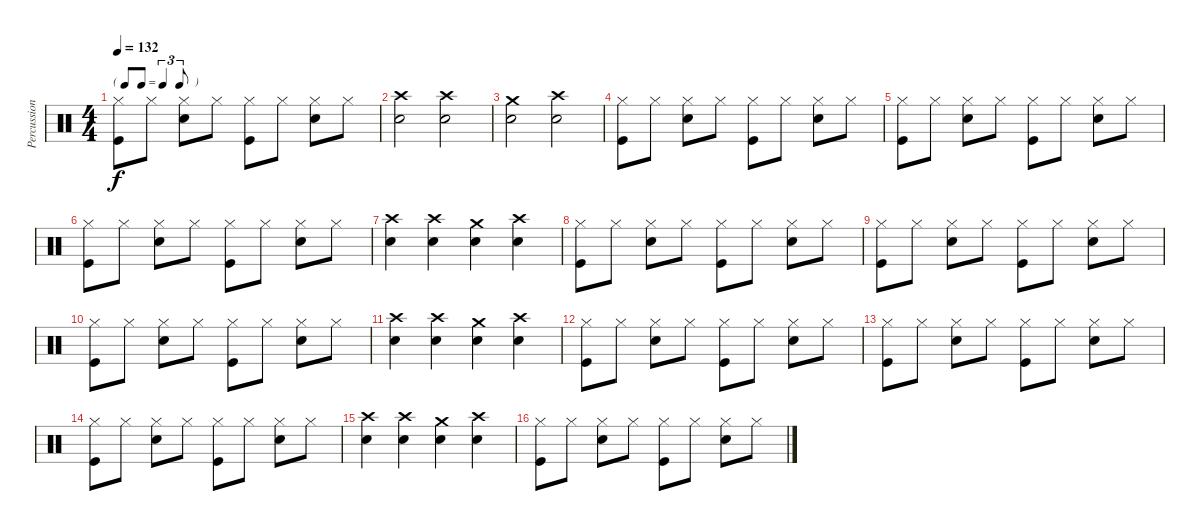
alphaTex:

\track ("Percussion" "Percussion") {instrument percussion}
\staff {score}
\articulation defaults
\ts (4 4)
\tf triplet8th
\tempo 132
\clef neutral
\ks c
("Hi-Hat (closed)" "Kick (hit)").8{dy f} "Hi-Hat (closed)".8 ("Hi-Hat (closed)" "Snare (hit) 2").8 "Hi-Hat (closed)".8 ("Hi-Hat (closed)" "Kick (hit)").8 "Hi-Hat (closed)".8 ("Hi-Hat (closed)" "Snare (hit) 2").8 "Hi-Hat (closed)".8 |
("Crash high (hit)" "Snare (hit) 2").2 ("Crash high (hit)" "Snare (hit) 2").2 |
("Crash medium (hit)" "Snare (hit) 2").2 ("Crash high (hit)" "Snare (hit) 2").2 |
("Hi-Hat (closed)" "Kick (hit)").8 "Hi-Hat (closed)".8 ("Hi-Hat (closed)" "Snare (hit) 2").8 "Hi-Hat (closed)".8 ("Hi-Hat (closed)" "Kick (hit)").8 "Hi-Hat (closed)".8 ("Hi-Hat (closed)" "Snare (hit) 2").8 "Hi-Hat (closed)".8 |
("Hi-Hat (closed)" "Kick (hit)").8 "Hi-Hat (closed)".8 ("Hi-Hat (closed)" "Snare (hit) 2").8 "Hi-Hat (closed)".8 ("Hi-Hat (closed)" "Kick (hit)").8 "Hi-Hat (closed)".8 ("Hi-Hat (closed)" "Snare (hit) 2").8 "Hi-Hat (closed)".8 |
("Hi-Hat (closed)" "Kick (hit)").8 "Hi-Hat (closed)".8 ("Hi-Hat (closed)" "Snare (hit) 2").8 "Hi-Hat (closed)".8 ("Hi-Hat (closed)" "Kick (hit)").8 "Hi-Hat (closed)".8 ("Hi-Hat (closed)" "Snare (hit) 2").8 "Hi-Hat (closed)".8 |
("Crash high (hit)" "Snare (hit) 2").4 ("Crash high (hit)" "Snare (hit) 2").4 ("Crash medium (hit)" "Snare (hit) 2").4 ("Crash high (hit)" "Snare (hit) 2").4 |
("Hi-Hat (closed)" "Kick (hit)").8 "Hi-Hat (closed)".8 ("Hi-Hat (closed)" "Snare (hit) 2").8 "Hi-Hat (closed)".8 ("Hi-Hat (closed)" "Kick (hit)").8 "Hi-Hat (closed)".8 ("Hi-Hat (closed)" "Snare (hit) 2").8 "Hi-Hat (closed)".8 |
("Hi-Hat (closed)" "Kick (hit)").8 "Hi-Hat (closed)".8 ("Hi-Hat (closed)" "Snare (hit) 2").8 "Hi-Hat (closed)".8 ("Hi-Hat (closed)" "Kick (hit)").8 "Hi-Hat (closed)".8 ("Hi-Hat (closed)" "Snare (hit) 2").8 "Hi-Hat (closed)".8 |
("Hi-Hat (closed)" "Kick (hit)").8 "Hi-Hat (closed)".8 ("Hi-Hat (closed)" "Snare (hit) 2").8 "Hi-Hat (closed)".8 ("Hi-Hat (closed)" "Kick (hit)").8 "Hi-Hat (closed)".8 ("Hi-Hat (closed)" "Snare (hit) 2").8 "Hi-Hat (closed)".8 |
("Crash high (hit)" "Snare (hit) 2").4 ("Crash high (hit)" "Snare (hit) 2").4 ("Crash medium (hit)" "Snare (hit) 2").4 ("Crash high (hit)" "Snare (hit) 2").4 |
("Hi-Hat (closed)" "Kick (hit)").8 "Hi-Hat (closed)".8 ("Hi-Hat (closed)" "Snare (hit) 2").8 "Hi-Hat (closed)".8 ("Hi-Hat (closed)" "Kick (hit)").8 "Hi-Hat (closed)".8 ("Hi-Hat (closed)" "Snare (hit) 2").8 "Hi-Hat (closed)".8 |
("Hi-Hat (closed)" "Kick (hit)").8 "Hi-Hat (closed)".8 ("Hi-Hat (closed)" "Snare (hit) 2").8 "Hi-Hat (closed)".8 ("Hi-Hat (closed)" "Kick (hit)").8 "Hi-Hat (closed)".8 ("Hi-Hat (closed)" "Snare (hit) 2").8 "Hi-Hat (closed)".8 |
("Hi-Hat (closed)" "Kick (hit)").8 "Hi-Hat (closed)".8 ("Hi-Hat (closed)" "Snare (hit) 2").8 "Hi-Hat (closed)".8 ("Hi-Hat (closed)" "Kick (hit)").8 "Hi-Hat (closed)".8 ("Hi-Hat (closed)" "Snare (hit) 2").8 "Hi-Hat (closed)".8 |
("Crash high (hit)" "Snare (hit) 2").4 ("Crash high (hit)" "Snare (hit) 2").4 ("Crash medium (hit)" "Snare (hit) 2").4 ("Crash high (hit)" "Snare (hit) 2").4 |
("Hi-Hat (closed)" "Kick (hit)").8 "Hi-Hat (closed)".8 ("Hi-Hat (closed)" "Snare (hit) 2").8 "Hi-Hat (closed)".8 ("Hi-Hat (closed)" "Kick (hit)").8 "Hi-Hat (closed)".8 ("Hi-Hat (closed)" "Snare (hit) 2").8 "Hi-Hat (closed)".8
